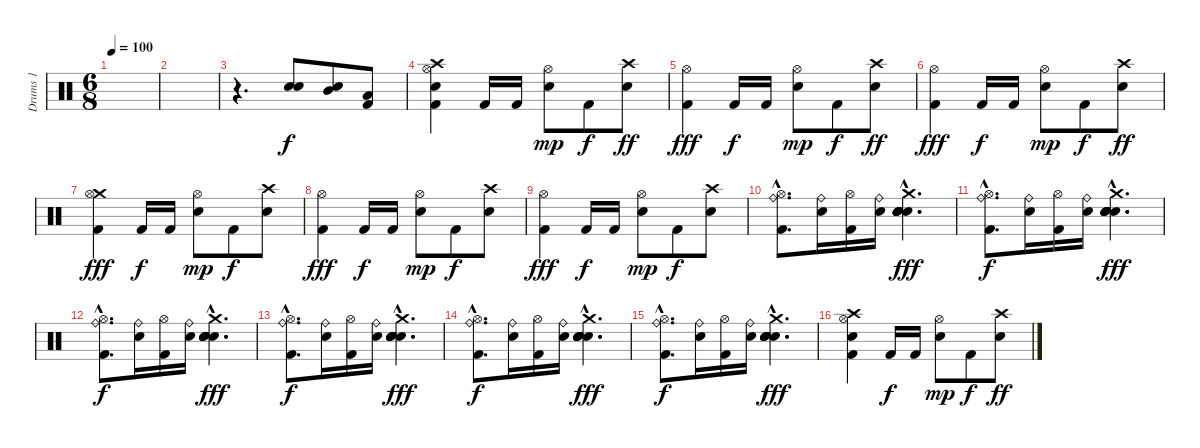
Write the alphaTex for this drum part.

\track ("Drums 1" "Drums 1") {instrument percussion}
\staff {score}
\articulation defaults
\ts (6 8)
\tempo 100
\clef neutral
\ks c
|
|
r.4{d} ("Snare (hit) 2" "Snare (hit) 2").8{bu 480} ("Snare (hit) 2" "Mid Tom (hit)").8{bu 480} ("Kick (hit) 2" "Low Tom (hit)").8{bu 480} |
("Kick (hit) 2" "Snare (hit) 2" "Crash high (hit)" "Hi-Hat (open)").4 "Kick (hit) 2".16{dy f} "Kick (hit) 2".16 ("Snare (hit) 2" "Hi-Hat (open)").8{dy mp} "Kick (hit) 2".8{dy f} ("Snare (hit) 2" "Crash high (hit)").8{dy ff} |
("Kick (hit) 2" "Hi-Hat (open)").4{dy fff} "Kick (hit) 2".16{dy f} "Kick (hit) 2".16 ("Snare (hit) 2" "Hi-Hat (open)").8{dy mp} "Kick (hit) 2".8{dy f} ("Snare (hit) 2" "Crash high (hit)").8{dy ff} |
("Kick (hit) 2" "Hi-Hat (open)").4{dy fff} "Kick (hit) 2".16{dy f} "Kick (hit) 2".16 ("Snare (hit) 2" "Hi-Hat (open)").8{dy mp} "Kick (hit) 2".8{dy f} ("Snare (hit) 2" "Crash high (hit)").8{dy ff} |
("Kick (hit) 2" "Crash medium (hit)" "Hi-Hat (open)").4{dy fff} "Kick (hit) 2".16{dy f} "Kick (hit) 2".16 ("Snare (hit) 2" "Hi-Hat (open)").8{dy mp} "Kick (hit) 2".8{dy f} ("Snare (hit) 2" "Crash high (hit)").8 |
("Kick (hit) 2" "Hi-Hat (open)").4{dy fff} "Kick (hit) 2".16{dy f} "Kick (hit) 2".16 ("Snare (hit) 2" "Hi-Hat (open)").8{dy mp} "Kick (hit) 2".8{dy f} ("Snare (hit) 2" "Crash high (hit)").8 |
("Kick (hit) 2" "Hi-Hat (open)").4{dy fff} "Kick (hit) 2".16{dy f} "Kick (hit) 2".16 ("Snare (hit) 2" "Hi-Hat (open)").8{dy mp} "Kick (hit) 2".8{dy f} ("Snare (hit) 2" "Crash high (hit)").8 |
("Kick (hit) 2"{hac} "Ride (bell)"{hac} "Hi-Hat (open)"{hac}).8{d} ("Snare (hit) 2" "Ride (bell)").16 ("Kick (hit) 2" "Hi-Hat (open)").16 ("Snare (hit) 2" "Ride (bell)").16 ("Snare (hit) 2"{hac} "Snare (hit) 2"{hac} "Snare (hit) 2"{hac} "Snare (hit) 2"{hac} "Snare (hit) 2"{hac} "Crash medium (hit)"{hac}).4{d bu 480 dy fff} |
("Kick (hit) 2"{hac} "Ride (bell)"{hac} "Hi-Hat (open)"{hac}).8{d dy f} ("Snare (hit) 2" "Ride (bell)").16 ("Kick (hit) 2" "Hi-Hat (open)").16 ("Snare (hit) 2" "Ride (bell)").16 ("Snare (hit) 2"{hac} "Snare (hit) 2"{hac} "Snare (hit) 2"{hac} "Snare (hit) 2"{hac} "Snare (hit) 2"{hac} "Crash medium (hit)"{hac}).4{d bu 480 dy fff} |
("Kick (hit) 2"{hac} "Ride (bell)"{hac} "Hi-Hat (open)"{hac}).8{d dy f} ("Snare (hit) 2" "Ride (bell)").16 ("Kick (hit) 2" "Hi-Hat (open)").16 ("Snare (hit) 2" "Ride (bell)").16 ("Snare (hit) 2"{hac} "Snare (hit) 2"{hac} "Snare (hit) 2"{hac} "Snare (hit) 2"{hac} "Snare (hit) 2"{hac} "Crash medium (hit)"{hac}).4{d bu 480 dy fff} |
("Kick (hit) 2"{hac} "Ride (bell)"{hac} "Hi-Hat (open)"{hac}).8{d dy f} ("Snare (hit) 2" "Ride (bell)").16 ("Kick (hit) 2" "Hi-Hat (open)").16 ("Snare (hit) 2" "Ride (bell)").16 ("Snare (hit) 2"{hac} "Snare (hit) 2"{hac} "Snare (hit) 2"{hac} "Snare (hit) 2"{hac} "Snare (hit) 2"{hac} "Crash medium (hit)"{hac}).4{d bu 480 dy fff} |
("Kick (hit) 2"{hac} "Ride (bell)"{hac} "Hi-Hat (open)"{hac}).8{d dy f} ("Snare (hit) 2" "Ride (bell)").16 ("Kick (hit) 2" "Hi-Hat (open)").16 ("Snare (hit) 2" "Ride (bell)").16 ("Snare (hit) 2"{hac} "Snare (hit) 2"{hac} "Snare (hit) 2"{hac} "Snare (hit) 2"{hac} "Snare (hit) 2"{hac} "Crash medium (hit)"{hac}).4{d bu 480 dy fff} |
("Kick (hit) 2"{hac} "Ride (bell)"{hac} "Hi-Hat (open)"{hac}).8{d dy f} ("Snare (hit) 2" "Ride (bell)").16 ("Kick (hit) 2" "Hi-Hat (open)").16 ("Snare (hit) 2" "Ride (bell)").16 ("Snare (hit) 2"{hac} "Snare (hit) 2"{hac} "Snare (hit) 2"{hac} "Snare (hit) 2"{hac} "Snare (hit) 2"{hac} "Crash medium (hit)"{hac}).4{d bu 480 dy fff} |
("Kick (hit) 2" "Snare (hit) 2" "Crash high (hit)" "Hi-Hat (open)").4 "Kick (hit) 2".16{dy f} "Kick (hit) 2".16 ("Snare (hit) 2" "Hi-Hat (open)").8{dy mp} "Kick (hit) 2".8{dy f} ("Snare (hit) 2" "Crash high (hit)").8{dy ff}
